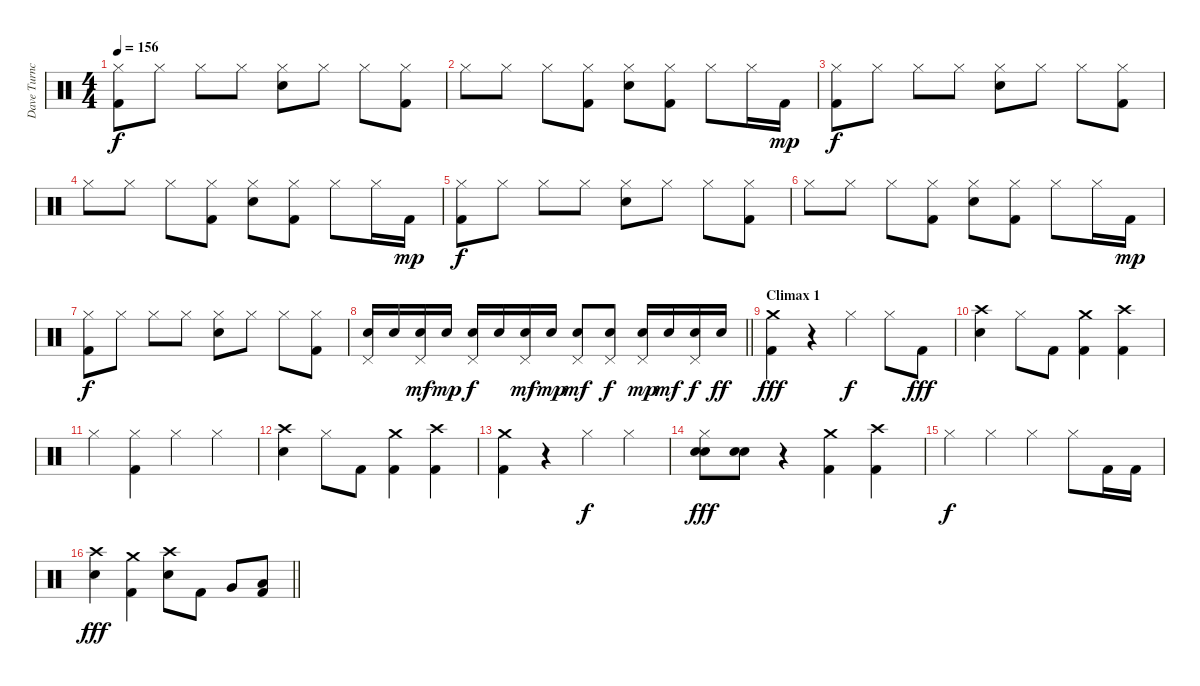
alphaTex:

\track ("Dave Turncrantz" "Dave Turnc") {instrument percussion}
\staff {score}
\articulation defaults
\ts (4 4)
\section ("" "")
\tempo 156
\clef neutral
\ks c
("Hi-Hat (closed)" "Kick (hit) 2").8{dy f} "Hi-Hat (closed)".8 "Hi-Hat (closed)".8 "Hi-Hat (closed)".8 ("Hi-Hat (closed)" "Electric Snare (hit)").8 "Hi-Hat (closed)".8 "Hi-Hat (closed)".8 ("Hi-Hat (closed)" "Kick (hit) 2").8 |
"Hi-Hat (closed)".8 "Hi-Hat (closed)".8 "Hi-Hat (closed)".8 ("Hi-Hat (closed)" "Kick (hit) 2").8 ("Hi-Hat (closed)" "Electric Snare (hit)").8 ("Hi-Hat (closed)" "Kick (hit) 2").8 "Hi-Hat (closed)".8 "Hi-Hat (closed)".16 "Kick (hit) 2".16{dy mp} |
("Hi-Hat (closed)" "Kick (hit) 2").8{dy f} "Hi-Hat (closed)".8 "Hi-Hat (closed)".8 "Hi-Hat (closed)".8 ("Hi-Hat (closed)" "Electric Snare (hit)").8 "Hi-Hat (closed)".8 "Hi-Hat (closed)".8 ("Hi-Hat (closed)" "Kick (hit) 2").8 |
"Hi-Hat (closed)".8 "Hi-Hat (closed)".8 "Hi-Hat (closed)".8 ("Hi-Hat (closed)" "Kick (hit) 2").8 ("Hi-Hat (closed)" "Electric Snare (hit)").8 ("Hi-Hat (closed)" "Kick (hit) 2").8 "Hi-Hat (closed)".8 "Hi-Hat (closed)".16 "Kick (hit) 2".16{dy mp} |
("Hi-Hat (closed)" "Kick (hit) 2").8{dy f} "Hi-Hat (closed)".8 "Hi-Hat (closed)".8 "Hi-Hat (closed)".8 ("Hi-Hat (closed)" "Electric Snare (hit)").8 "Hi-Hat (closed)".8 "Hi-Hat (closed)".8 ("Hi-Hat (closed)" "Kick (hit) 2").8 |
"Hi-Hat (closed)".8 "Hi-Hat (closed)".8 "Hi-Hat (closed)".8 ("Hi-Hat (closed)" "Kick (hit) 2").8 ("Hi-Hat (closed)" "Electric Snare (hit)").8 ("Hi-Hat (closed)" "Kick (hit) 2").8 "Hi-Hat (closed)".8 "Hi-Hat (closed)".16 "Kick (hit) 2".16{dy mp} |
("Hi-Hat (closed)" "Kick (hit) 2").8{dy f} "Hi-Hat (closed)".8 "Hi-Hat (closed)".8 "Hi-Hat (closed)".8 ("Hi-Hat (closed)" "Electric Snare (hit)").8 "Hi-Hat (closed)".8 "Hi-Hat (closed)".8 ("Hi-Hat (closed)" "Kick (hit) 2").8 |
\barLineRight lightlight
("Pedal Hi-Hat (hit)" "Electric Snare (hit)").16 "Electric Snare (hit)".16 ("Pedal Hi-Hat (hit)" "Electric Snare (hit)").16{dy mf} "Electric Snare (hit)".16{dy mp} ("Pedal Hi-Hat (hit)" "Electric Snare (hit)").16{dy f} "Electric Snare (hit)".16 ("Pedal Hi-Hat (hit)" "Electric Snare (hit)").16{dy mf} "Electric Snare (hit)".16{dy mp} ("Pedal Hi-Hat (hit)" "Electric Snare (hit)").8{dy mf} ("Pedal Hi-Hat (hit)" "Electric Snare (hit)").8{dy f} ("Pedal Hi-Hat (hit)" "Electric Snare (hit)").16{dy mp} "Electric Snare (hit)".16{dy mf} ("Pedal Hi-Hat (hit)" "Electric Snare (hit)").16{dy f} "Electric Snare (hit)".16{dy ff} |
\section ("" "Climax 1")
("Crash medium (hit)" "Kick (hit) 2").4{dy fff} r.4 "Hi-Hat (closed)".4{dy f} "Hi-Hat (closed)".8 "Kick (hit) 2".8{dy fff} |
("Crash high (hit)" "Electric Snare (hit)").4 "Hi-Hat (closed)".8 "Kick (hit) 2".8 ("Crash medium (hit)" "Kick (hit) 2").4 ("Crash high (hit)" "Kick (hit) 2").4 |
"Hi-Hat (closed)".4 ("Hi-Hat (closed)" "Kick (hit) 2").4 "Hi-Hat (closed)".4 "Hi-Hat (closed)".4 |
("Crash high (hit)" "Electric Snare (hit)").4 "Hi-Hat (closed)".8 "Kick (hit) 2".8 ("Crash medium (hit)" "Kick (hit) 2").4 ("Crash high (hit)" "Kick (hit) 2").4 |
("Crash medium (hit)" "Kick (hit) 2").4 r.4 "Hi-Hat (closed)".4{dy f} "Hi-Hat (closed)".4 |
("Hi-Hat (closed)" "Electric Snare (hit)" "Snare (hit) 2").8{dy fff} ("Electric Snare (hit)" "Snare (hit) 2").8 r.4 ("Crash medium (hit)" "Kick (hit) 2").4 ("Crash high (hit)" "Kick (hit) 2").4 |
"Hi-Hat (closed)".4{dy f} "Hi-Hat (closed)".4 "Hi-Hat (closed)".4 "Hi-Hat (closed)".8 "Kick (hit) 2".16 "Kick (hit) 2".16 |
\barLineRight lightlight
("Crash high (hit)" "Electric Snare (hit)").4{dy fff} ("Crash medium (hit)" "Kick (hit) 2").4 ("Crash high (hit)" "Electric Snare (hit)").8 "Kick (hit) 2".8 "Very Low Tom (hit)".8 ("Low Floor Tom (hit)" "Kick (hit) 2").8
